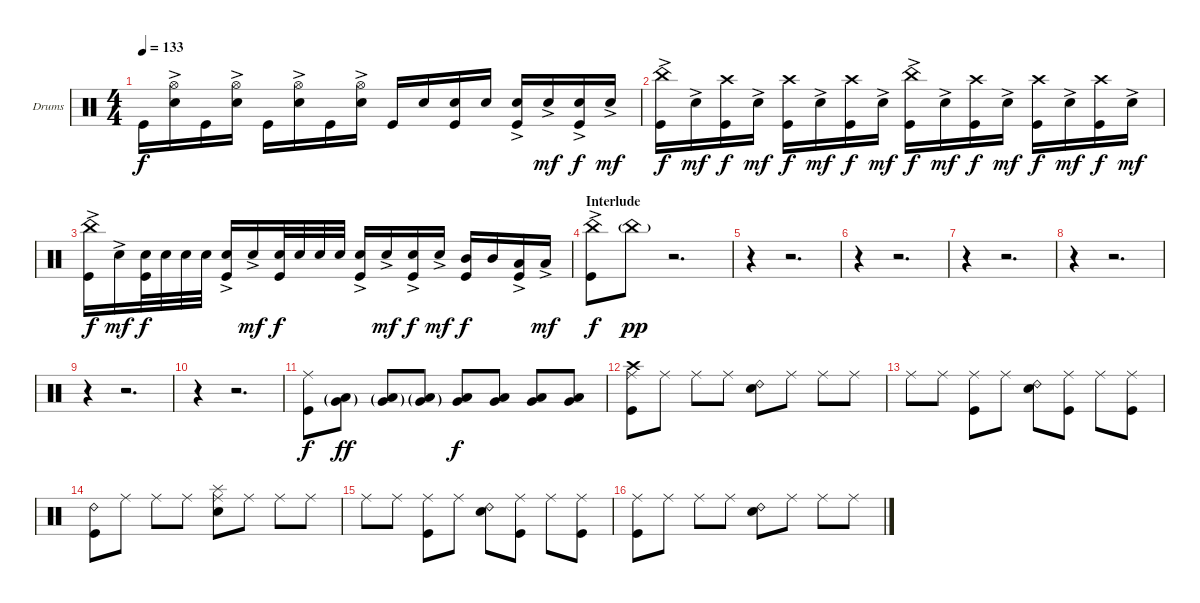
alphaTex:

\bracketExtendMode groupsimilarinstruments
\firstSystemTrackNameOrientation horizontal
\otherSystemsTrackNameOrientation horizontal
\track ("Drumkit" "Drums") {instrument percussion}
\staff {score}
\articulation defaults
\ts (4 4)
\tempo 133
\clef neutral
\ks c "Kick (hit)".16{dy f}
("Snare (hit) 2"{ac} "Hi-Hat (open)").16 "Kick (hit)".16 ("Snare (hit) 2"{ac} "Hi-Hat (open)").16 "Kick (hit)".16 ("Snare (hit) 2"{ac} "Hi-Hat (open)").16 "Kick (hit)".16 ("Snare (hit) 2"{ac} "Hi-Hat (open)").16 "Kick (hit)".16 "Snare (hit) 2".16 ("Kick (hit)" "Snare (hit) 2").16 "Snare (hit) 2".16 ("Kick (hit)" "Snare (hit) 2"{ac}).16 "Snare (hit) 2"{ac}.16{dy mf} ("Kick (hit)" "Snare (hit) 2"{ac}).16{dy f} "Snare (hit) 2"{ac}.16{dy mf} |
("Kick (hit)" "China (hit)"{ac}).16{dy f} "Snare (hit) 2"{ac}.16{dy mf} ("Kick (hit)" "Crash high (hit)").16{dy f} "Snare (hit) 2"{ac}.16{dy mf} ("Kick (hit)" "Crash high (hit)").16{dy f} "Snare (hit) 2"{ac}.16{dy mf} ("Kick (hit)" "Crash high (hit)").16{dy f} "Snare (hit) 2"{ac}.16{dy mf} ("Kick (hit)" "China (hit)"{ac}).16{dy f} "Snare (hit) 2"{ac}.16{dy mf} ("Kick (hit)" "Crash high (hit)").16{dy f} "Snare (hit) 2"{ac}.16{dy mf} ("Kick (hit)" "Crash high (hit)").16{dy f} "Snare (hit) 2"{ac}.16{dy mf} ("Kick (hit)" "Crash high (hit)").16{dy f} "Snare (hit) 2"{ac}.16{dy mf} |
("Kick (hit)" "China (hit)"{ac}).16{dy f} "Snare (hit) 2"{ac}.16{dy mf} ("Snare (hit) 2" "Kick (hit)").32{dy f} "Snare (hit) 2".32 "Snare (hit) 2".32 "Snare (hit) 2".32 ("Snare (hit) 2"{ac} "Kick (hit)").16 "Snare (hit) 2"{ac}.16{dy mf} ("Snare (hit) 2" "Kick (hit)").32{dy f} "Snare (hit) 2".32 "Snare (hit) 2".32 "Snare (hit) 2".32 ("Snare (hit) 2"{ac} "Kick (hit)").16 "Snare (hit) 2"{ac}.16{dy mf} ("Snare (hit) 2"{ac} "Kick (hit)").16{dy f} "Snare (hit) 2"{ac}.16{dy mf} ("Mid Tom (hit)" "Kick (hit)").16{dy f} "Mid Tom (hit)".16 ("Low Tom (hit)"{ac} "Kick (hit)").16 "Low Tom (hit)"{ac}.16{dy mf} |
\section ("" "Interlude")
("Kick (hit)" "China (hit)"{ac}).8{dy f} "China (hit)"{g}.8{dy pp} r.2{d} |
r.4 r.2{d} |
r.4 r.2{d} |
r.4 r.2{d} |
r.4 r.2{d} |
r.4 r.2{d} |
r.4 r.2{d} |
("Kick (hit)" "Ride (middle)").8{dy f} ("Very Low Tom (hit)"{g} "Low Tom (hit)"{g}).8{dy ff} ("Low Tom (hit)"{g} "Very Low Tom (hit)"{g}).8 ("Low Tom (hit)"{g} "Very Low Tom (hit)"{g}).8 ("Low Tom (hit)" "Very Low Tom (hit)").8{dy f} ("Low Tom (hit)" "Very Low Tom (hit)").8 ("Low Tom (hit)" "Very Low Tom (hit)").8 ("Low Tom (hit)" "Very Low Tom (hit)").8 |
("Ride (middle)" "Crash high (hit)" "Kick (hit)").8 "Ride (middle)".8 "Ride (middle)".8 "Ride (middle)".8 ("Ride (bell) 2" "Snare (hit) 2").8 "Ride (middle)".8 "Ride (middle)".8 "Ride (middle)".8 |
"Ride (middle)".8 "Ride (middle)".8 ("Ride (middle)" "Kick (hit)").8 "Ride (middle)".8 ("Ride (bell) 2" "Snare (hit) 2").8 ("Ride (middle)" "Kick (hit)").8 "Ride (middle)".8 ("Ride (middle)" "Kick (hit)").8 |
("Ride (bell) 2" "Kick (hit)").8 "Ride (middle)".8 "Ride (middle)".8 "Ride (middle)".8 ("Ride (middle)" "Splash (hit)" "Snare (hit) 2").8 "Ride (middle)".8 "Ride (middle)".8 "Ride (middle)".8 |
"Ride (middle)".8 "Ride (middle)".8 ("Ride (middle)" "Kick (hit)").8 "Ride (middle)".8 ("Ride (bell) 2" "Snare (hit) 2").8 ("Ride (middle)" "Kick (hit)").8 "Ride (middle)".8 ("Ride (middle)" "Kick (hit)").8 |
("Ride (middle)" "Kick (hit)").8 "Ride (middle)".8 "Ride (middle)".8 "Ride (middle)".8 ("Ride (bell) 2" "Snare (hit) 2").8 "Ride (middle)".8 "Ride (middle)".8 "Ride (middle)".8
